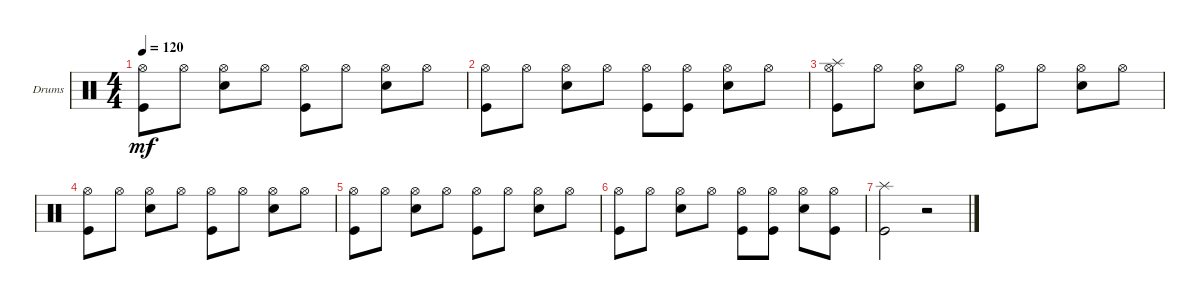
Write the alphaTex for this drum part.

\defaultSystemsLayout 4
\bracketExtendMode groupsimilarinstruments
\firstSystemTrackNameOrientation horizontal
\otherSystemsTrackNameOrientation horizontal
\track ("Drumkit" "Drums") {instrument percussion}
\staff {score}
\articulation defaults
\ts (4 4)
\tempo 120
\clef neutral
\ks c
("Kick (hit)" "Hi-Hat (open)").8{dy mf} "Hi-Hat (open)".8 ("Hi-Hat (open)" "Snare (hit) 2").8 "Hi-Hat (open)".8 ("Hi-Hat (open)" "Kick (hit)").8 "Hi-Hat (open)".8 ("Hi-Hat (open)" "Snare (hit) 2").8 "Hi-Hat (open)".8 |
("Kick (hit)" "Hi-Hat (open)").8 "Hi-Hat (open)".8 ("Hi-Hat (open)" "Snare (hit) 2").8 "Hi-Hat (open)".8 ("Hi-Hat (open)" "Kick (hit)").8 ("Hi-Hat (open)" "Kick (hit)").8 ("Hi-Hat (open)" "Snare (hit) 2").8 "Hi-Hat (open)".8 |
("Kick (hit)" "Hi-Hat (open)" "Splash (hit)").8 "Hi-Hat (open)".8 ("Hi-Hat (open)" "Snare (hit) 2").8 "Hi-Hat (open)".8 ("Hi-Hat (open)" "Kick (hit)").8 "Hi-Hat (open)".8 ("Hi-Hat (open)" "Snare (hit) 2").8 "Hi-Hat (open)".8 |
("Kick (hit)" "Hi-Hat (open)").8 "Hi-Hat (open)".8 ("Hi-Hat (open)" "Snare (hit) 2").8 "Hi-Hat (open)".8 ("Hi-Hat (open)" "Kick (hit)").8 "Hi-Hat (open)".8 ("Hi-Hat (open)" "Snare (hit) 2").8 "Hi-Hat (open)".8 |
("Kick (hit)" "Hi-Hat (open)").8 "Hi-Hat (open)".8 ("Hi-Hat (open)" "Snare (hit) 2").8 "Hi-Hat (open)".8 ("Hi-Hat (open)" "Kick (hit)").8 "Hi-Hat (open)".8 ("Hi-Hat (open)" "Snare (hit) 2").8 "Hi-Hat (open)".8 |
("Kick (hit)" "Hi-Hat (open)").8 "Hi-Hat (open)".8 ("Hi-Hat (open)" "Snare (hit) 2").8 "Hi-Hat (open)".8 ("Hi-Hat (open)" "Kick (hit)").8 ("Hi-Hat (open)" "Kick (hit)").8 ("Hi-Hat (open)" "Snare (hit) 2").8 ("Hi-Hat (open)" "Kick (hit)").8 |
("Kick (hit)" "Splash (hit)").2 r.2
